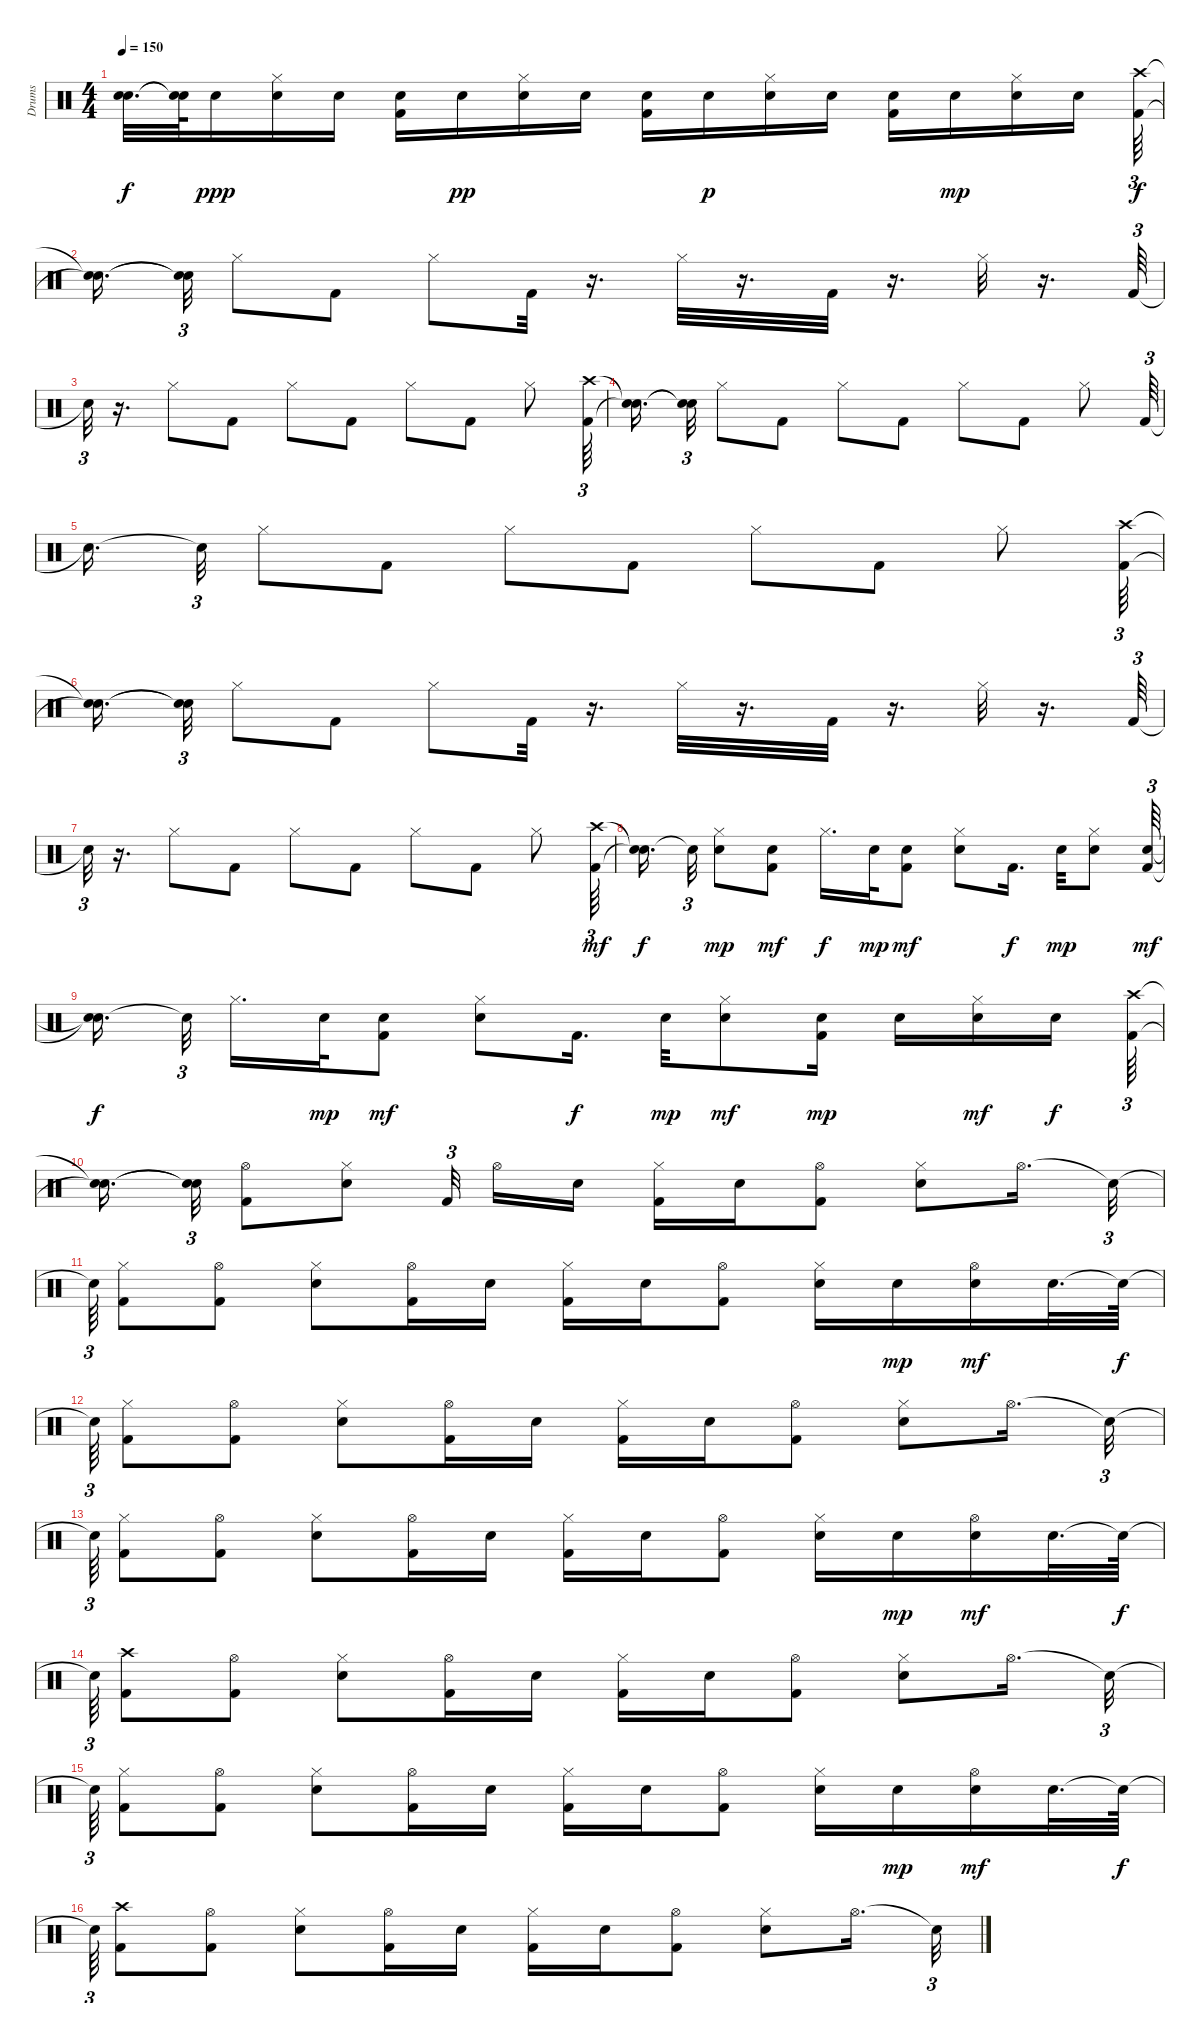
\track ("Drums" "Drums") {instrument percussion}
\staff {score}
\articulation defaults
\ts (4 4)
\tempo 150
\clef neutral
\ks c
("Snare (hit)"{t} "Snare (hit)"{t}).32{d dy f} ("Snare (hit)"{t} "Snare (hit)"{t}).64 "Electric Snare (hit)".16{dy ppp} ("Hi-Hat (closed)" "Electric Snare (hit)").16 "Electric Snare (hit)".16 ("Kick (hit) 2" "Electric Snare (hit)").16 "Electric Snare (hit)".16{dy pp} ("Hi-Hat (closed)" "Electric Snare (hit)").16 "Electric Snare (hit)".16 ("Kick (hit) 2" "Electric Snare (hit)").16 "Electric Snare (hit)".16{dy p} ("Hi-Hat (closed)" "Electric Snare (hit)").16 "Electric Snare (hit)".16 ("Kick (hit) 2" "Electric Snare (hit)").16 "Electric Snare (hit)".16{dy mp} ("Hi-Hat (closed)" "Electric Snare (hit)").16 "Electric Snare (hit)".16 ("Crash high (hit)" "Kick (hit) 2").64{tu (3 2) dy f} |
("Snare (hit)"{t} "Snare (hit)"{t}).16{d} ("Snare (hit)"{t} "Snare (hit)"{t}).32{tu (3 2)} "Hi-Hat (closed)".8 "Kick (hit) 2".8 "Hi-Hat (closed)".8 "Kick (hit) 2".32 r.16{d} "Hi-Hat (closed)".32 r.16{d} "Kick (hit) 2".32 r.16{d} "Hi-Hat (closed)".32 r.16{d} "Kick (hit) 2".64{tu (3 2)} |
"Snare (hit)"{t}.32{tu (3 2)} r.16{d} "Hi-Hat (closed)".8 "Kick (hit) 2".8 "Hi-Hat (closed)".8 "Kick (hit) 2".8 "Hi-Hat (closed)".8 "Kick (hit) 2".8 "Hi-Hat (closed)".8 ("Crash high (hit)" "Kick (hit) 2").64{tu (3 2)} |
("Snare (hit)"{t} "Snare (hit)"{t}).16{d} ("Snare (hit)"{t} "Snare (hit)"{t}).32{tu (3 2)} "Hi-Hat (closed)".8 "Kick (hit) 2".8 "Hi-Hat (closed)".8 "Kick (hit) 2".8 "Hi-Hat (closed)".8 "Kick (hit) 2".8 "Hi-Hat (closed)".8 "Kick (hit) 2".64{tu (3 2)} |
"Snare (hit)"{t}.16{d} "Snare (hit)"{t}.32{tu (3 2)} "Hi-Hat (closed)".8 "Kick (hit) 2".8 "Hi-Hat (closed)".8 "Kick (hit) 2".8 "Hi-Hat (closed)".8 "Kick (hit) 2".8 "Hi-Hat (closed)".8 ("Crash high (hit)" "Kick (hit) 2").64{tu (3 2)} |
("Snare (hit)"{t} "Snare (hit)"{t}).16{d} ("Snare (hit)"{t} "Snare (hit)"{t}).32{tu (3 2)} "Hi-Hat (closed)".8 "Kick (hit) 2".8 "Hi-Hat (closed)".8 "Kick (hit) 2".32 r.16{d} "Hi-Hat (closed)".32 r.16{d} "Kick (hit) 2".32 r.16{d} "Hi-Hat (closed)".32 r.16{d} "Kick (hit) 2".64{tu (3 2)} |
"Snare (hit)"{t}.32{tu (3 2)} r.16{d} "Hi-Hat (closed)".8 "Kick (hit) 2".8 "Hi-Hat (closed)".8 "Kick (hit) 2".8 "Hi-Hat (closed)".8 "Kick (hit) 2".8 "Hi-Hat (closed)".8 ("Crash high (hit)" "Kick (hit) 2").64{tu (3 2) dy mf} |
("Snare (hit)"{t} "Snare (hit)"{t}).16{d dy f} "Snare (hit)"{t}.32{tu (3 2)} ("Electric Snare (hit)" "Hi-Hat (closed)").8{dy mp} ("Electric Snare (hit)" "Kick (hit) 2").8{dy mf} "Hi-Hat (closed)".16{d dy f} "Electric Snare (hit)".32{dy mp} ("Electric Snare (hit)" "Kick (hit) 2").8{dy mf} ("Electric Snare (hit)" "Hi-Hat (closed)").8 "Kick (hit) 2".16{d dy f} "Electric Snare (hit)".32{dy mp} ("Electric Snare (hit)" "Hi-Hat (closed)").8 ("Electric Snare (hit)" "Kick (hit) 2").64{tu (3 2) dy mf} |
("Snare (hit)"{t} "Snare (hit)"{t}).16{d dy f} "Snare (hit)"{t}.32{tu (3 2)} "Hi-Hat (closed)".16{d} "Electric Snare (hit)".32{dy mp} ("Electric Snare (hit)" "Kick (hit) 2").8{dy mf} ("Electric Snare (hit)" "Hi-Hat (closed)").8 "Kick (hit) 2".16{d dy f} "Electric Snare (hit)".32{dy mp} ("Electric Snare (hit)" "Hi-Hat (closed)").8{dy mf} ("Electric Snare (hit)" "Kick (hit) 2").16{dy mp} "Electric Snare (hit)".16 ("Electric Snare (hit)" "Hi-Hat (closed)").16{dy mf} "Electric Snare (hit)".16{dy f} ("Crash high (hit)" "Kick (hit) 2").64{tu (3 2)} |
("Snare (hit)"{t} "Snare (hit)"{t}).16{d} ("Snare (hit)"{t} "Snare (hit)"{t}).32{tu (3 2)} ("Hi-Hat (open)" "Kick (hit) 2").8 ("Hi-Hat (closed)" "Electric Snare (hit)").8 "Kick (hit) 2".32{tu (3 2)} "Hi-Hat (open)".16 "Electric Snare (hit)".16 ("Kick (hit) 2" "Hi-Hat (closed)").16 "Electric Snare (hit)".16 ("Hi-Hat (open)" "Kick (hit) 2").8 ("Electric Snare (hit)" "Hi-Hat (closed)").8 "Hi-Hat (open)".16{d} "Snare (hit)"{t}.32{tu (3 2)} |
"Snare (hit)"{t}.64{tu (3 2)} ("Hi-Hat (closed)" "Kick (hit) 2").8 ("Hi-Hat (open)" "Kick (hit) 2").8 ("Electric Snare (hit)" "Hi-Hat (closed)").8 ("Hi-Hat (open)" "Kick (hit) 2").16 "Electric Snare (hit)".16 ("Hi-Hat (closed)" "Kick (hit) 2").16 "Electric Snare (hit)".16 ("Hi-Hat (open)" "Kick (hit) 2").8 ("Hi-Hat (closed)" "Electric Snare (hit)").16 "Electric Snare (hit)".16{dy mp} ("Hi-Hat (open)" "Electric Snare (hit)").16{dy mf} "Electric Snare (hit)".32{d} "Snare (hit)"{t}.64{dy f} |
"Snare (hit)"{t}.64{tu (3 2)} ("Hi-Hat (closed)" "Kick (hit) 2").8 ("Hi-Hat (open)" "Kick (hit) 2").8 ("Hi-Hat (closed)" "Electric Snare (hit)").8 ("Kick (hit) 2" "Hi-Hat (open)").16 "Electric Snare (hit)".16 ("Kick (hit) 2" "Hi-Hat (closed)").16 "Electric Snare (hit)".16 ("Hi-Hat (open)" "Kick (hit) 2").8 ("Electric Snare (hit)" "Hi-Hat (closed)").8 "Hi-Hat (open)".16{d} "Snare (hit)"{t}.32{tu (3 2)} |
"Snare (hit)"{t}.64{tu (3 2)} ("Hi-Hat (closed)" "Kick (hit) 2").8 ("Hi-Hat (open)" "Kick (hit) 2").8 ("Electric Snare (hit)" "Hi-Hat (closed)").8 ("Hi-Hat (open)" "Kick (hit) 2").16 "Electric Snare (hit)".16 ("Hi-Hat (closed)" "Kick (hit) 2").16 "Electric Snare (hit)".16 ("Hi-Hat (open)" "Kick (hit) 2").8 ("Hi-Hat (closed)" "Electric Snare (hit)").16 "Electric Snare (hit)".16{dy mp} ("Hi-Hat (open)" "Electric Snare (hit)").16{dy mf} "Electric Snare (hit)".32{d} "Snare (hit)"{t}.64{dy f} |
"Snare (hit)"{t}.64{tu (3 2)} ("Crash high (hit)" "Kick (hit) 2").8 ("Hi-Hat (open)" "Kick (hit) 2").8 ("Hi-Hat (closed)" "Electric Snare (hit)").8 ("Kick (hit) 2" "Hi-Hat (open)").16 "Electric Snare (hit)".16 ("Kick (hit) 2" "Hi-Hat (closed)").16 "Electric Snare (hit)".16 ("Hi-Hat (open)" "Kick (hit) 2").8 ("Electric Snare (hit)" "Hi-Hat (closed)").8 "Hi-Hat (open)".16{d} "Snare (hit)"{t}.32{tu (3 2)} |
"Snare (hit)"{t}.64{tu (3 2)} ("Hi-Hat (closed)" "Kick (hit) 2").8 ("Hi-Hat (open)" "Kick (hit) 2").8 ("Electric Snare (hit)" "Hi-Hat (closed)").8 ("Hi-Hat (open)" "Kick (hit) 2").16 "Electric Snare (hit)".16 ("Hi-Hat (closed)" "Kick (hit) 2").16 "Electric Snare (hit)".16 ("Hi-Hat (open)" "Kick (hit) 2").8 ("Hi-Hat (closed)" "Electric Snare (hit)").16 "Electric Snare (hit)".16{dy mp} ("Hi-Hat (open)" "Electric Snare (hit)").16{dy mf} "Electric Snare (hit)".32{d} "Snare (hit)"{t}.64{dy f} |
"Snare (hit)"{t}.64{tu (3 2)} ("Crash high (hit)" "Kick (hit) 2").8 ("Hi-Hat (open)" "Kick (hit) 2").8 ("Hi-Hat (closed)" "Electric Snare (hit)").8 ("Kick (hit) 2" "Hi-Hat (open)").16 "Electric Snare (hit)".16 ("Kick (hit) 2" "Hi-Hat (closed)").16 "Electric Snare (hit)".16 ("Hi-Hat (open)" "Kick (hit) 2").8 ("Electric Snare (hit)" "Hi-Hat (closed)").8 "Hi-Hat (open)".16{d} "Snare (hit)"{t}.32{tu (3 2)}
